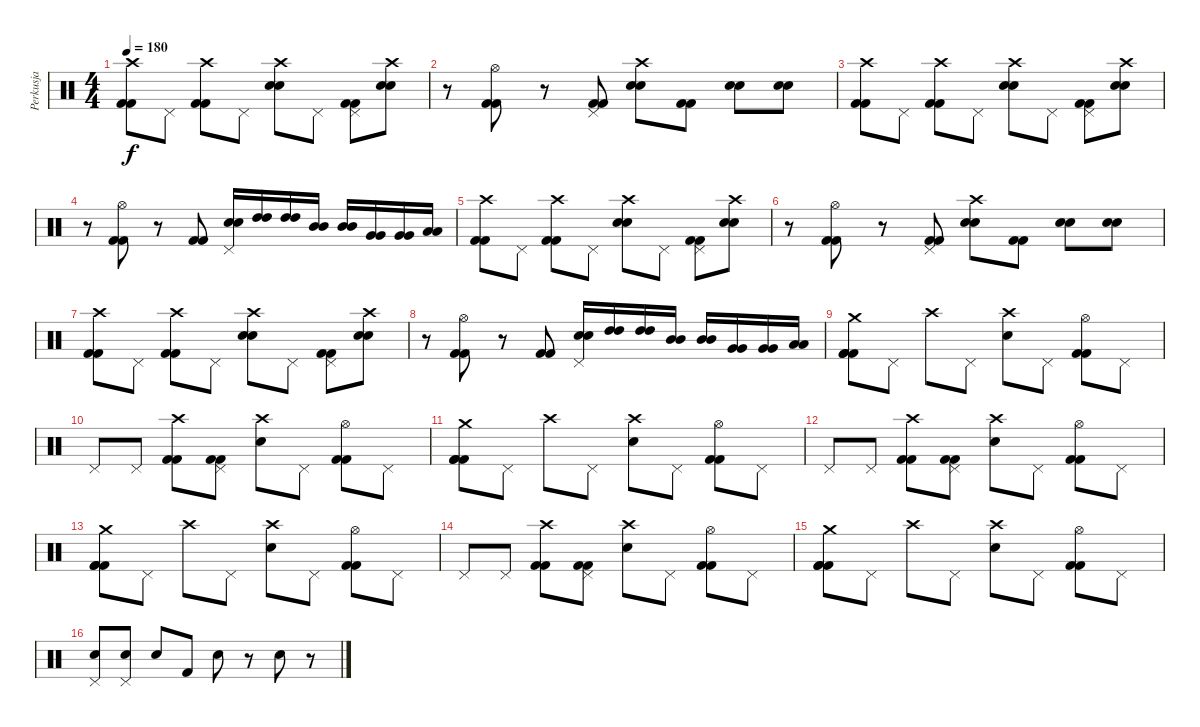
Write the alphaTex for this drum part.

\track ("Perkusja" "Perkusja") {instrument percussion}
\staff {score}
\articulation defaults
\ts (4 4)
\tempo 180
\clef neutral
\ks c
("Crash high (hit)" "Kick (hit) 2" "Kick (hit) 2").8{dy f} "Pedal Hi-Hat (hit)".8 ("Crash high (hit)" "Kick (hit) 2" "Kick (hit) 2").8 "Pedal Hi-Hat (hit)".8 ("Crash high (hit)" "Snare (hit) 2" "Snare (hit) 2").8 "Pedal Hi-Hat (hit)".8 ("Pedal Hi-Hat (hit)" "Kick (hit) 2" "Kick (hit) 2").8 ("Crash high (hit)" "Snare (hit) 2" "Snare (hit) 2").8 |
r.8 ("Hi-Hat (open)" "Kick (hit) 2" "Kick (hit) 2").8 r.8 ("Pedal Hi-Hat (hit)" "Kick (hit) 2" "Kick (hit) 2").8 ("Crash high (hit)" "Snare (hit) 2" "Snare (hit) 2").8 ("Kick (hit) 2" "Kick (hit) 2").8 ("Snare (hit) 2" "Snare (hit) 2").8 ("Snare (hit) 2" "Snare (hit) 2").8 |
("Crash high (hit)" "Kick (hit) 2" "Kick (hit) 2").8 "Pedal Hi-Hat (hit)".8 ("Crash high (hit)" "Kick (hit) 2" "Kick (hit) 2").8 "Pedal Hi-Hat (hit)".8 ("Crash high (hit)" "Snare (hit) 2" "Snare (hit) 2").8 "Pedal Hi-Hat (hit)".8 ("Pedal Hi-Hat (hit)" "Kick (hit) 2" "Kick (hit) 2").8 ("Crash high (hit)" "Snare (hit) 2" "Snare (hit) 2").8 |
r.8 ("Hi-Hat (open)" "Kick (hit) 2" "Kick (hit) 2").8 r.8 ("Kick (hit) 2" "Kick (hit) 2").8 ("Snare (hit) 2" "Snare (hit) 2" "Pedal Hi-Hat (hit)").16 ("High Tom (hit)" "High Tom (hit)").16 ("High Tom (hit)" "High Tom (hit)").16 ("Mid Tom (hit)" "Mid Tom (hit)").16 ("Mid Tom (hit)" "Mid Tom (hit)").16 ("Very Low Tom (hit)" "Very Low Tom (hit)").16 ("Very Low Tom (hit)" "Very Low Tom (hit)").16 ("Low Floor Tom (hit)" "Low Floor Tom (hit)").16 |
("Crash high (hit)" "Kick (hit) 2" "Kick (hit) 2").8 "Pedal Hi-Hat (hit)".8 ("Crash high (hit)" "Kick (hit) 2" "Kick (hit) 2").8 "Pedal Hi-Hat (hit)".8 ("Crash high (hit)" "Snare (hit) 2" "Snare (hit) 2").8 "Pedal Hi-Hat (hit)".8 ("Pedal Hi-Hat (hit)" "Kick (hit) 2" "Kick (hit) 2").8 ("Crash high (hit)" "Snare (hit) 2" "Snare (hit) 2").8 |
r.8 ("Hi-Hat (open)" "Kick (hit) 2" "Kick (hit) 2").8 r.8 ("Pedal Hi-Hat (hit)" "Kick (hit) 2" "Kick (hit) 2").8 ("Crash high (hit)" "Snare (hit) 2" "Snare (hit) 2").8 ("Kick (hit) 2" "Kick (hit) 2").8 ("Snare (hit) 2" "Snare (hit) 2").8 ("Snare (hit) 2" "Snare (hit) 2").8 |
("Crash high (hit)" "Kick (hit) 2" "Kick (hit) 2").8 "Pedal Hi-Hat (hit)".8 ("Crash high (hit)" "Kick (hit) 2" "Kick (hit) 2").8 "Pedal Hi-Hat (hit)".8 ("Crash high (hit)" "Snare (hit) 2" "Snare (hit) 2").8 "Pedal Hi-Hat (hit)".8 ("Pedal Hi-Hat (hit)" "Kick (hit) 2" "Kick (hit) 2").8 ("Crash high (hit)" "Snare (hit) 2" "Snare (hit) 2").8 |
r.8 ("Hi-Hat (open)" "Kick (hit) 2" "Kick (hit) 2").8 r.8 ("Kick (hit) 2" "Kick (hit) 2").8 ("Snare (hit) 2" "Snare (hit) 2" "Pedal Hi-Hat (hit)").16 ("High Tom (hit)" "High Tom (hit)").16 ("High Tom (hit)" "High Tom (hit)").16 ("Mid Tom (hit)" "Mid Tom (hit)").16 ("Mid Tom (hit)" "Mid Tom (hit)").16 ("Very Low Tom (hit)" "Very Low Tom (hit)").16 ("Very Low Tom (hit)" "Very Low Tom (hit)").16 ("Low Floor Tom (hit)" "Low Floor Tom (hit)").16 |
("Crash medium (hit)" "Kick (hit) 2" "Kick (hit) 2" "Kick (hit) 2").8 "Pedal Hi-Hat (hit)".8 "Crash high (hit)".8 "Pedal Hi-Hat (hit)".8 ("Crash high (hit)" "Snare (hit) 2").8 "Pedal Hi-Hat (hit)".8 ("Hi-Hat (open)" "Kick (hit) 2" "Kick (hit) 2").8 "Pedal Hi-Hat (hit)".8 |
"Pedal Hi-Hat (hit)".8 "Pedal Hi-Hat (hit)".8 ("Crash high (hit)" "Kick (hit) 2" "Kick (hit) 2").8 ("Pedal Hi-Hat (hit)" "Kick (hit) 2" "Kick (hit) 2").8 ("Crash high (hit)" "Snare (hit) 2").8 "Pedal Hi-Hat (hit)".8 ("Hi-Hat (open)" "Kick (hit) 2" "Kick (hit) 2").8 "Pedal Hi-Hat (hit)".8 |
("Crash medium (hit)" "Kick (hit) 2" "Kick (hit) 2" "Kick (hit) 2").8 "Pedal Hi-Hat (hit)".8 "Crash high (hit)".8 "Pedal Hi-Hat (hit)".8 ("Crash high (hit)" "Snare (hit) 2").8 "Pedal Hi-Hat (hit)".8 ("Hi-Hat (open)" "Kick (hit) 2" "Kick (hit) 2").8 "Pedal Hi-Hat (hit)".8 |
"Pedal Hi-Hat (hit)".8 "Pedal Hi-Hat (hit)".8 ("Crash high (hit)" "Kick (hit) 2" "Kick (hit) 2").8 ("Pedal Hi-Hat (hit)" "Kick (hit) 2" "Kick (hit) 2").8 ("Crash high (hit)" "Snare (hit) 2").8 "Pedal Hi-Hat (hit)".8 ("Hi-Hat (open)" "Kick (hit) 2" "Kick (hit) 2").8 "Pedal Hi-Hat (hit)".8 |
("Crash medium (hit)" "Kick (hit) 2" "Kick (hit) 2" "Kick (hit) 2").8 "Pedal Hi-Hat (hit)".8 "Crash high (hit)".8 "Pedal Hi-Hat (hit)".8 ("Crash high (hit)" "Snare (hit) 2").8 "Pedal Hi-Hat (hit)".8 ("Hi-Hat (open)" "Kick (hit) 2" "Kick (hit) 2").8 "Pedal Hi-Hat (hit)".8 |
"Pedal Hi-Hat (hit)".8 "Pedal Hi-Hat (hit)".8 ("Crash high (hit)" "Kick (hit) 2" "Kick (hit) 2").8 ("Pedal Hi-Hat (hit)" "Kick (hit) 2" "Kick (hit) 2").8 ("Crash high (hit)" "Snare (hit) 2").8 "Pedal Hi-Hat (hit)".8 ("Hi-Hat (open)" "Kick (hit) 2" "Kick (hit) 2").8 "Pedal Hi-Hat (hit)".8 |
("Crash medium (hit)" "Kick (hit) 2" "Kick (hit) 2" "Kick (hit) 2").8 "Pedal Hi-Hat (hit)".8 "Crash high (hit)".8 "Pedal Hi-Hat (hit)".8 ("Crash high (hit)" "Snare (hit) 2").8 "Pedal Hi-Hat (hit)".8 ("Hi-Hat (open)" "Kick (hit) 2" "Kick (hit) 2").8 "Pedal Hi-Hat (hit)".8 |
("Pedal Hi-Hat (hit)" "Snare (hit) 2").8 ("Pedal Hi-Hat (hit)" "Snare (hit) 2").8 "Snare (hit) 2".8 "Kick (hit) 2".8 "Snare (hit) 2".8 r.8 "Snare (hit) 2".8 r.8
